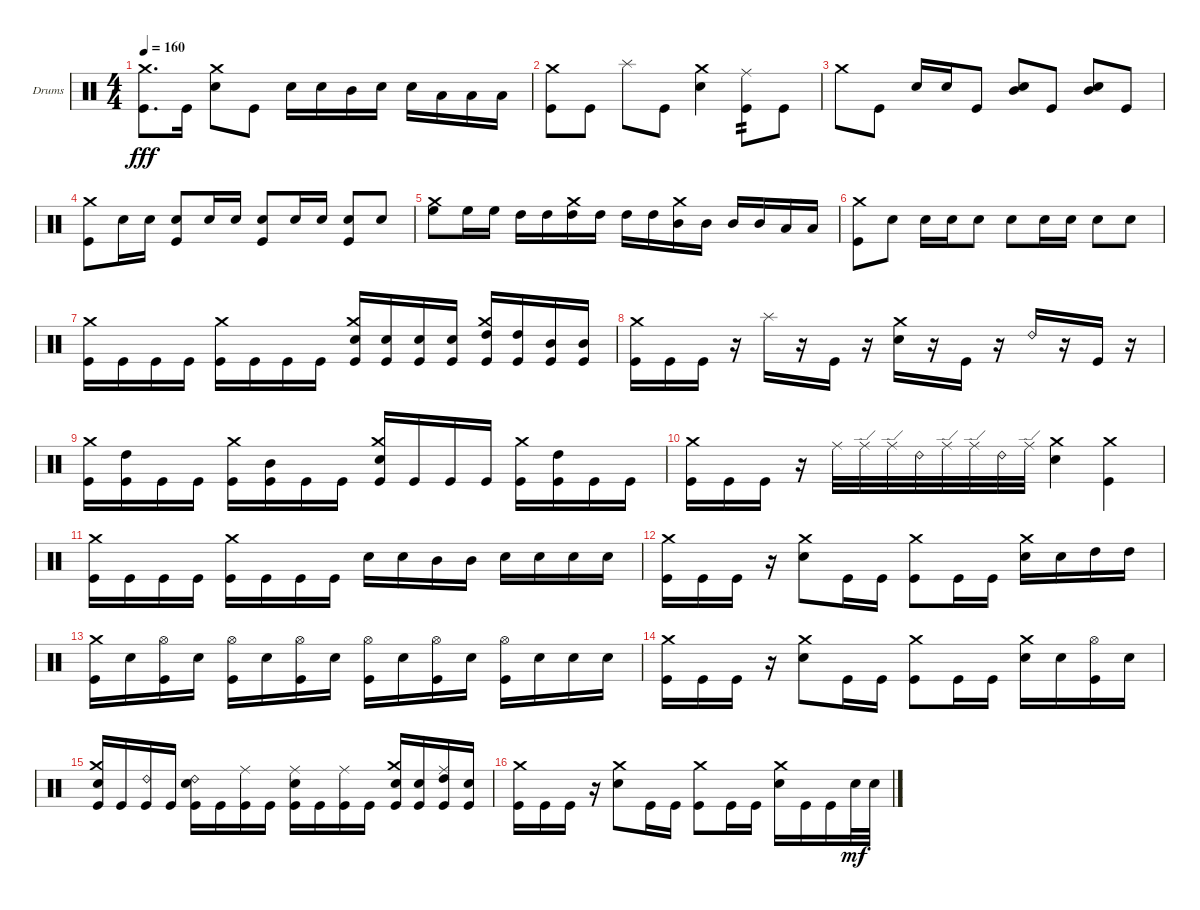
\defaultSystemsLayout 4
\bracketExtendMode groupsimilarinstruments
\firstSystemTrackNameOrientation horizontal
\otherSystemsTrackNameOrientation horizontal
\track ("Nikita Korzhov" "Drums") {instrument percussion}
\staff {score}
\articulation defaults
\ts (4 4)
\tempo 160
\clef neutral
\scale
0.333333
\ks c
("Kick (hit)" "Crash medium (hit)").8{d dy fff} "Kick (hit)".16 ("Snare (hit) 2" "Crash medium (hit)").8 "Kick (hit)".8 "Snare (hit) 2".16 "Snare (hit) 2".16 "Mid Tom (hit)".16 "Snare (hit) 2".16 "Snare (hit) 2".16 "Low Tom (hit)".16 "Low Tom (hit)".16 "Low Tom (hit)".16 |
\scale
0.333333 ("Kick (hit)" "Crash medium (hit)").8 "Kick (hit)".8 "Splash (hit)".8 "Kick (hit)".8 ("Snare (hit) 2" "Crash medium (hit)").4 ("Kick (hit)" "Ride (middle)").8{tp 2} "Kick (hit)".8 |
\scale
0.333333 "Crash medium (hit)".8 "Kick (hit)".8 "Snare (hit) 2".16 "Snare (hit) 2".16 "Kick (hit)".8 ("Snare (hit) 2" "Mid Tom (hit)").8 "Kick (hit)".8 ("Snare (hit) 2" "Mid Tom (hit)").8 "Kick (hit)".8 |
\scale
0.333333 ("Kick (hit)" "Crash medium (hit)").8 "Snare (hit) 2".16 "Snare (hit) 2".16 ("Snare (hit) 2" "Kick (hit)").8 "Snare (hit) 2".16 "Snare (hit) 2".16 ("Snare (hit) 2" "Kick (hit)").8 "Snare (hit) 2".16 "Snare (hit) 2".16 ("Snare (hit) 2" "Kick (hit)").8 "Snare (hit) 2".8 |
\scale
0.333333 ("High Floor Tom (hit)" "Crash medium (hit)").8 "High Floor Tom (hit)".16 "High Floor Tom (hit)".16 "High Tom (hit)".16 "High Tom (hit)".16 ("High Tom (hit)" "Crash medium (hit)").16 "High Tom (hit)".16 "High Tom (hit)".16 "High Tom (hit)".16 ("Mid Tom (hit)" "Crash medium (hit)").16 "Mid Tom (hit)".16 "Mid Tom (hit)".16 "Mid Tom (hit)".16 "Low Tom (hit)".16 "Low Tom (hit)".16 |
\scale
0.333333 ("Kick (hit)" "Crash medium (hit)").8 "Snare (hit) 2".8 "Snare (hit) 2".16 "Snare (hit) 2".16 "Snare (hit) 2".8 "Snare (hit) 2".8 "Snare (hit) 2".16 "Snare (hit) 2".16 "Snare (hit) 2".8 "Snare (hit) 2".8 |
\scale
0.333333 ("Kick (hit)" "Crash medium (hit)").16 "Kick (hit)".16 "Kick (hit)".16 "Kick (hit)".16 ("Kick (hit)" "Crash medium (hit)").16 "Kick (hit)".16 "Kick (hit)".16 "Kick (hit)".16 ("Kick (hit)" "Crash medium (hit)" "Snare (hit) 2").16 ("Kick (hit)" "Snare (hit) 2").16 ("Kick (hit)" "Snare (hit) 2").16 ("Kick (hit)" "Snare (hit) 2").16 ("Kick (hit)" "Crash medium (hit)" "High Tom (hit)").16 ("Kick (hit)" "High Tom (hit)").16 ("Kick (hit)" "Mid Tom (hit)").16 ("Kick (hit)" "Mid Tom (hit)").16 |
\scale
0.333333 ("Kick (hit)" "Crash medium (hit)").16 "Kick (hit)".16 "Kick (hit)".16 r.16 "Splash (hit)".16 r.16 "Kick (hit)".16 r.16 ("Crash medium (hit)" "Snare (hit) 2").16 r.16 "Kick (hit)".16 r.16 "Ride (bell) 2".16 r.16 "Kick (hit)".16 r.16 |
\scale
0.333333 ("Kick (hit)" "Crash medium (hit)").16 ("Kick (hit)" "High Tom (hit)").16 "Kick (hit)".16 "Kick (hit)".16 ("Kick (hit)" "Crash medium (hit)").16 ("Kick (hit)" "Mid Tom (hit)").16 "Kick (hit)".16 "Kick (hit)".16 ("Kick (hit)" "Crash medium (hit)" "Snare (hit) 2").16 "Kick (hit)".16 "Kick (hit)".16 "Kick (hit)".16 ("Kick (hit)" "Crash medium (hit)").16 ("Kick (hit)" "High Tom (hit)").16 "Kick (hit)".16 "Kick (hit)".16 |
\scale
0.333333 ("Kick (hit)" "Crash medium (hit)").16 "Kick (hit)".16 "Kick (hit)".16 r.16 "Ride (middle)".32 "Ride (edge)".32 "Ride (edge)".32 "Ride (bell) 2".32 "Ride (edge)".32 "Ride (edge)".32 "Ride (bell) 2".32 "Ride (edge)".32 ("Snare (hit) 2" "Crash medium (hit)").4 ("Crash medium (hit)" "Kick (hit)").4 |
\scale
0.333333 ("Kick (hit)" "Crash medium (hit)").16 "Kick (hit)".16 "Kick (hit)".16 "Kick (hit)".16 ("Kick (hit)" "Crash medium (hit)").16 "Kick (hit)".16 "Kick (hit)".16 "Kick (hit)".16 "Snare (hit) 2".16 "Snare (hit) 2".16 "Mid Tom (hit)".16 "Mid Tom (hit)".16 "Snare (hit) 2".16 "Snare (hit) 2".16 "Snare (hit) 2".16 "Snare (hit) 2".16 |
\scale
0.333333 ("Kick (hit)" "Crash medium (hit)").16 "Kick (hit)".16 "Kick (hit)".16 r.16 ("Snare (hit) 2" "Crash medium (hit)").8 "Kick (hit)".16 "Kick (hit)".16 ("Crash medium (hit)" "Kick (hit)").8 "Kick (hit)".16 "Kick (hit)".16 ("Snare (hit) 2" "Crash medium (hit)").16 "Snare (hit) 2".16 "High Tom (hit)".16 "High Tom (hit)".16 |
\scale
0.333333 ("Kick (hit)" "Crash medium (hit)").16 "Snare (hit) 2".16 ("Kick (hit)" "Hi-Hat (open)").16 "Snare (hit) 2".16 ("Kick (hit)" "Hi-Hat (open)").16 "Snare (hit) 2".16 ("Kick (hit)" "Hi-Hat (open)").16 "Snare (hit) 2".16 ("Kick (hit)" "Hi-Hat (open)").16 "Snare (hit) 2".16 ("Kick (hit)" "Hi-Hat (open)").16 "Snare (hit) 2".16 ("Kick (hit)" "Hi-Hat (open)").16 "Snare (hit) 2".16 "Snare (hit) 2".16 "Snare (hit) 2".16 |
\scale
0.333333 ("Kick (hit)" "Crash medium (hit)").16 "Kick (hit)".16 "Kick (hit)".16 r.16 ("Snare (hit) 2" "Crash medium (hit)").8 "Kick (hit)".16 "Kick (hit)".16 ("Crash medium (hit)" "Kick (hit)").8 "Kick (hit)".16 "Kick (hit)".16 ("Snare (hit) 2" "Crash medium (hit)").16 "Snare (hit) 2".16 ("Hi-Hat (open)" "Kick (hit)").16 "Snare (hit) 2".16 |
\scale
0.333333 ("Kick (hit)" "Crash medium (hit)" "Snare (hit) 2").16 "Kick (hit)".16 ("Kick (hit)" "Ride (bell) 2").16 "Kick (hit)".16 ("Kick (hit)" "Ride (bell) 2" "Snare (hit) 2").16 "Kick (hit)".16 ("Kick (hit)" "Ride (middle)").16 "Kick (hit)".16 ("Kick (hit)" "Ride (middle)" "Snare (hit) 2").16 "Kick (hit)".16 ("Kick (hit)" "Ride (middle)").16 "Kick (hit)".16 ("Kick (hit)" "Crash medium (hit)" "Snare (hit) 2").16 ("Kick (hit)" "Snare (hit) 2").16 ("Kick (hit)" "Ride (middle)" "High Tom (hit)").16 ("Kick (hit)" "Snare (hit) 2").16 |
\scale
0.333333 ("Kick (hit)" "Crash medium (hit)").16 "Kick (hit)".16 "Kick (hit)".16 r.16 ("Snare (hit) 2" "Crash medium (hit)").8 "Kick (hit)".16 "Kick (hit)".16 ("Crash medium (hit)" "Kick (hit)").8 "Kick (hit)".16 "Kick (hit)".16 ("Snare (hit) 2" "Crash medium (hit)").16 "Kick (hit)".16 "Kick (hit)".16 "Snare (hit) 2".32{dy mf} "Snare (hit) 2".32
